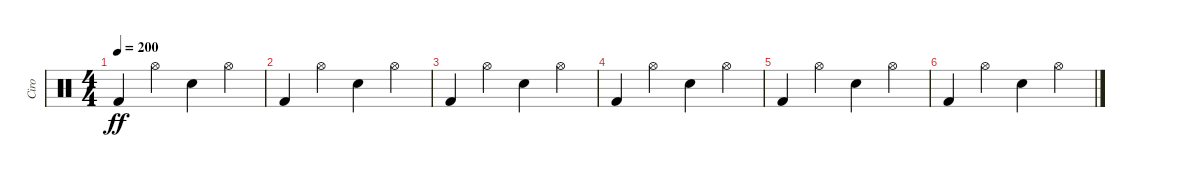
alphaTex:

\track ("Ciro" "Ciro") {instrument percussion}
\staff {score}
\articulation defaults
\ts (4 4)
\tempo 200
\clef neutral
\ks c "Kick (hit) 2".4{dy ff} "Hi-Hat (open)".4 "Snare (hit) 2".4 "Hi-Hat (open)".4
|
"Kick (hit) 2".4 "Hi-Hat (open)".4 "Snare (hit) 2".4 "Hi-Hat (open)".4 |
"Kick (hit) 2".4 "Hi-Hat (open)".4 "Snare (hit) 2".4 "Hi-Hat (open)".4 |
"Kick (hit) 2".4 "Hi-Hat (open)".4 "Snare (hit) 2".4 "Hi-Hat (open)".4 |
"Kick (hit) 2".4 "Hi-Hat (open)".4 "Snare (hit) 2".4 "Hi-Hat (open)".4 |
"Kick (hit) 2".4 "Hi-Hat (open)".4 "Snare (hit) 2".4 "Hi-Hat (open)".4
